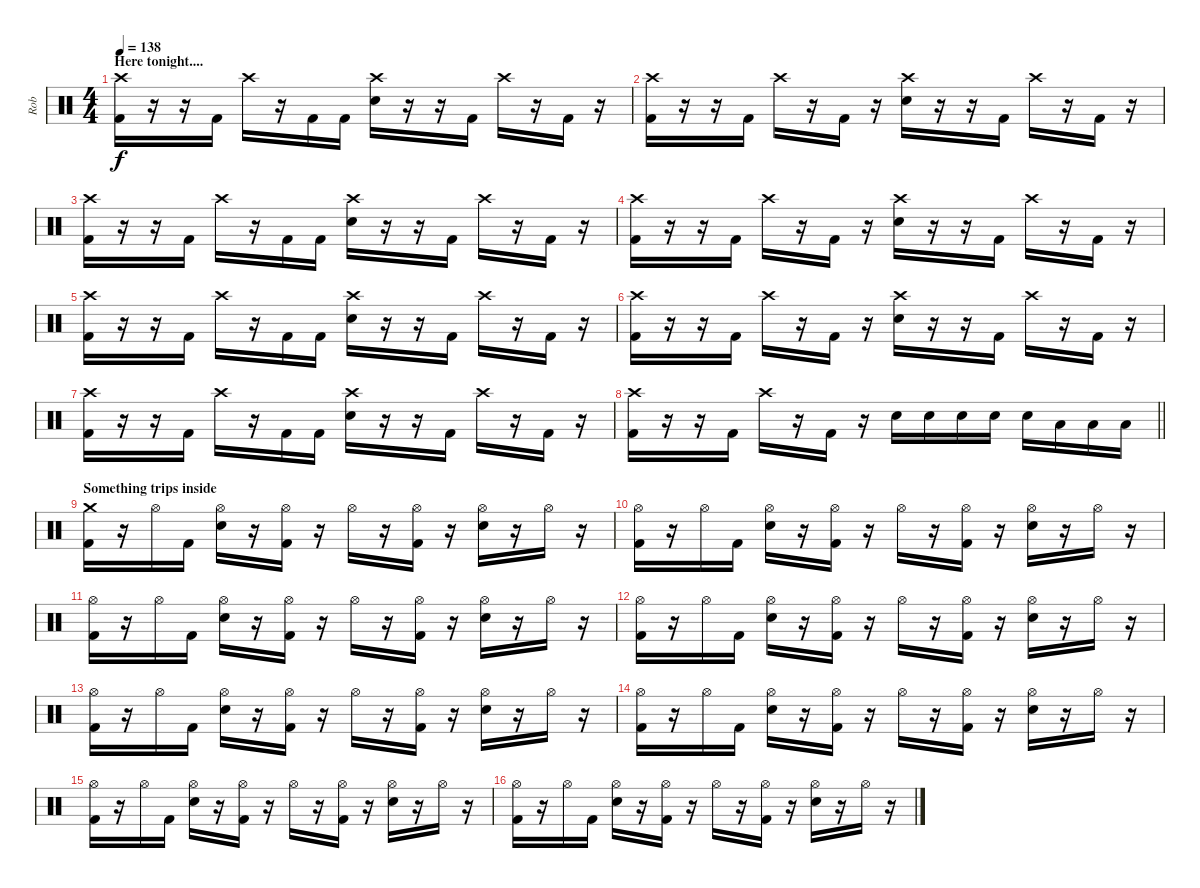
\track ("Rob" "Rob") {instrument percussion}
\staff {score}
\articulation defaults
\ts (4 4)
\section ("" "Here tonight....")
\tempo 138
\clef neutral
\ks c
("Crash high (hit)" "Kick (hit) 2").16{dy f} r.16 r.16 "Kick (hit) 2".16 "Crash high (hit)".16 r.16 "Kick (hit) 2".16 "Kick (hit) 2".16 ("Crash high (hit)" "Electric Snare (hit)").16 r.16 r.16 "Kick (hit) 2".16 "Crash high (hit)".16 r.16 "Kick (hit) 2".16 r.16 |
("Crash high (hit)" "Kick (hit) 2").16 r.16 r.16 "Kick (hit) 2".16 "Crash high (hit)".16 r.16 "Kick (hit) 2".16 r.16 ("Crash high (hit)" "Electric Snare (hit)").16 r.16 r.16 "Kick (hit) 2".16 "Crash high (hit)".16 r.16 "Kick (hit) 2".16 r.16 |
("Crash high (hit)" "Kick (hit) 2").16 r.16 r.16 "Kick (hit) 2".16 "Crash high (hit)".16 r.16 "Kick (hit) 2".16 "Kick (hit) 2".16 ("Crash high (hit)" "Electric Snare (hit)").16 r.16 r.16 "Kick (hit) 2".16 "Crash high (hit)".16 r.16 "Kick (hit) 2".16 r.16 |
("Crash high (hit)" "Kick (hit) 2").16 r.16 r.16 "Kick (hit) 2".16 "Crash high (hit)".16 r.16 "Kick (hit) 2".16 r.16 ("Crash high (hit)" "Electric Snare (hit)").16 r.16 r.16 "Kick (hit) 2".16 "Crash high (hit)".16 r.16 "Kick (hit) 2".16 r.16 |
("Crash high (hit)" "Kick (hit) 2").16 r.16 r.16 "Kick (hit) 2".16 "Crash high (hit)".16 r.16 "Kick (hit) 2".16 "Kick (hit) 2".16 ("Crash high (hit)" "Electric Snare (hit)").16 r.16 r.16 "Kick (hit) 2".16 "Crash high (hit)".16 r.16 "Kick (hit) 2".16 r.16 |
("Crash high (hit)" "Kick (hit) 2").16 r.16 r.16 "Kick (hit) 2".16 "Crash high (hit)".16 r.16 "Kick (hit) 2".16 r.16 ("Crash high (hit)" "Electric Snare (hit)").16 r.16 r.16 "Kick (hit) 2".16 "Crash high (hit)".16 r.16 "Kick (hit) 2".16 r.16 |
("Crash high (hit)" "Kick (hit) 2").16 r.16 r.16 "Kick (hit) 2".16 "Crash high (hit)".16 r.16 "Kick (hit) 2".16 "Kick (hit) 2".16 ("Crash high (hit)" "Electric Snare (hit)").16 r.16 r.16 "Kick (hit) 2".16 "Crash high (hit)".16 r.16 "Kick (hit) 2".16 r.16 |
\barLineRight lightlight
("Crash high (hit)" "Kick (hit) 2").16 r.16 r.16 "Kick (hit) 2".16 "Crash high (hit)".16 r.16 "Kick (hit) 2".16 r.16 "Electric Snare (hit)".16 "Electric Snare (hit)".16 "Electric Snare (hit)".16 "Electric Snare (hit)".16 "Electric Snare (hit)".16 "Low Tom (hit)".16 "Low Tom (hit)".16 "Low Tom (hit)".16 |
\section ("" "Something trips inside")
("Crash medium (hit)" "Kick (hit) 2").16 r.16 "Hi-Hat (open)".16 "Kick (hit) 2".16 ("Hi-Hat (open)" "Electric Snare (hit)").16 r.16 ("Hi-Hat (open)" "Kick (hit) 2").16 r.16 "Hi-Hat (open)".16 r.16 ("Hi-Hat (open)" "Kick (hit) 2").16 r.16 ("Hi-Hat (open)" "Electric Snare (hit)").16 r.16 "Hi-Hat (open)".16 r.16 |
("Hi-Hat (open)" "Kick (hit) 2").16 r.16 "Hi-Hat (open)".16 "Kick (hit) 2".16 ("Hi-Hat (open)" "Electric Snare (hit)").16 r.16 ("Hi-Hat (open)" "Kick (hit) 2").16 r.16 "Hi-Hat (open)".16 r.16 ("Hi-Hat (open)" "Kick (hit) 2").16 r.16 ("Hi-Hat (open)" "Electric Snare (hit)").16 r.16 "Hi-Hat (open)".16 r.16 |
("Hi-Hat (open)" "Kick (hit) 2").16 r.16 "Hi-Hat (open)".16 "Kick (hit) 2".16 ("Hi-Hat (open)" "Electric Snare (hit)").16 r.16 ("Hi-Hat (open)" "Kick (hit) 2").16 r.16 "Hi-Hat (open)".16 r.16 ("Hi-Hat (open)" "Kick (hit) 2").16 r.16 ("Hi-Hat (open)" "Electric Snare (hit)").16 r.16 "Hi-Hat (open)".16 r.16 |
("Hi-Hat (open)" "Kick (hit) 2").16 r.16 "Hi-Hat (open)".16 "Kick (hit) 2".16 ("Hi-Hat (open)" "Electric Snare (hit)").16 r.16 ("Hi-Hat (open)" "Kick (hit) 2").16 r.16 "Hi-Hat (open)".16 r.16 ("Hi-Hat (open)" "Kick (hit) 2").16 r.16 ("Hi-Hat (open)" "Electric Snare (hit)").16 r.16 "Hi-Hat (open)".16 r.16 |
("Hi-Hat (open)" "Kick (hit) 2").16 r.16 "Hi-Hat (open)".16 "Kick (hit) 2".16 ("Hi-Hat (open)" "Electric Snare (hit)").16 r.16 ("Hi-Hat (open)" "Kick (hit) 2").16 r.16 "Hi-Hat (open)".16 r.16 ("Hi-Hat (open)" "Kick (hit) 2").16 r.16 ("Hi-Hat (open)" "Electric Snare (hit)").16 r.16 "Hi-Hat (open)".16 r.16 |
("Hi-Hat (open)" "Kick (hit) 2").16 r.16 "Hi-Hat (open)".16 "Kick (hit) 2".16 ("Hi-Hat (open)" "Electric Snare (hit)").16 r.16 ("Hi-Hat (open)" "Kick (hit) 2").16 r.16 "Hi-Hat (open)".16 r.16 ("Hi-Hat (open)" "Kick (hit) 2").16 r.16 ("Hi-Hat (open)" "Electric Snare (hit)").16 r.16 "Hi-Hat (open)".16 r.16 |
("Hi-Hat (open)" "Kick (hit) 2").16 r.16 "Hi-Hat (open)".16 "Kick (hit) 2".16 ("Hi-Hat (open)" "Electric Snare (hit)").16 r.16 ("Hi-Hat (open)" "Kick (hit) 2").16 r.16 "Hi-Hat (open)".16 r.16 ("Hi-Hat (open)" "Kick (hit) 2").16 r.16 ("Hi-Hat (open)" "Electric Snare (hit)").16 r.16 "Hi-Hat (open)".16 r.16 |
("Hi-Hat (open)" "Kick (hit) 2").16 r.16 "Hi-Hat (open)".16 "Kick (hit) 2".16 ("Hi-Hat (open)" "Electric Snare (hit)").16 r.16 ("Hi-Hat (open)" "Kick (hit) 2").16 r.16 "Hi-Hat (open)".16 r.16 ("Hi-Hat (open)" "Kick (hit) 2").16 r.16 ("Hi-Hat (open)" "Electric Snare (hit)").16 r.16 "Hi-Hat (open)".16 r.16
